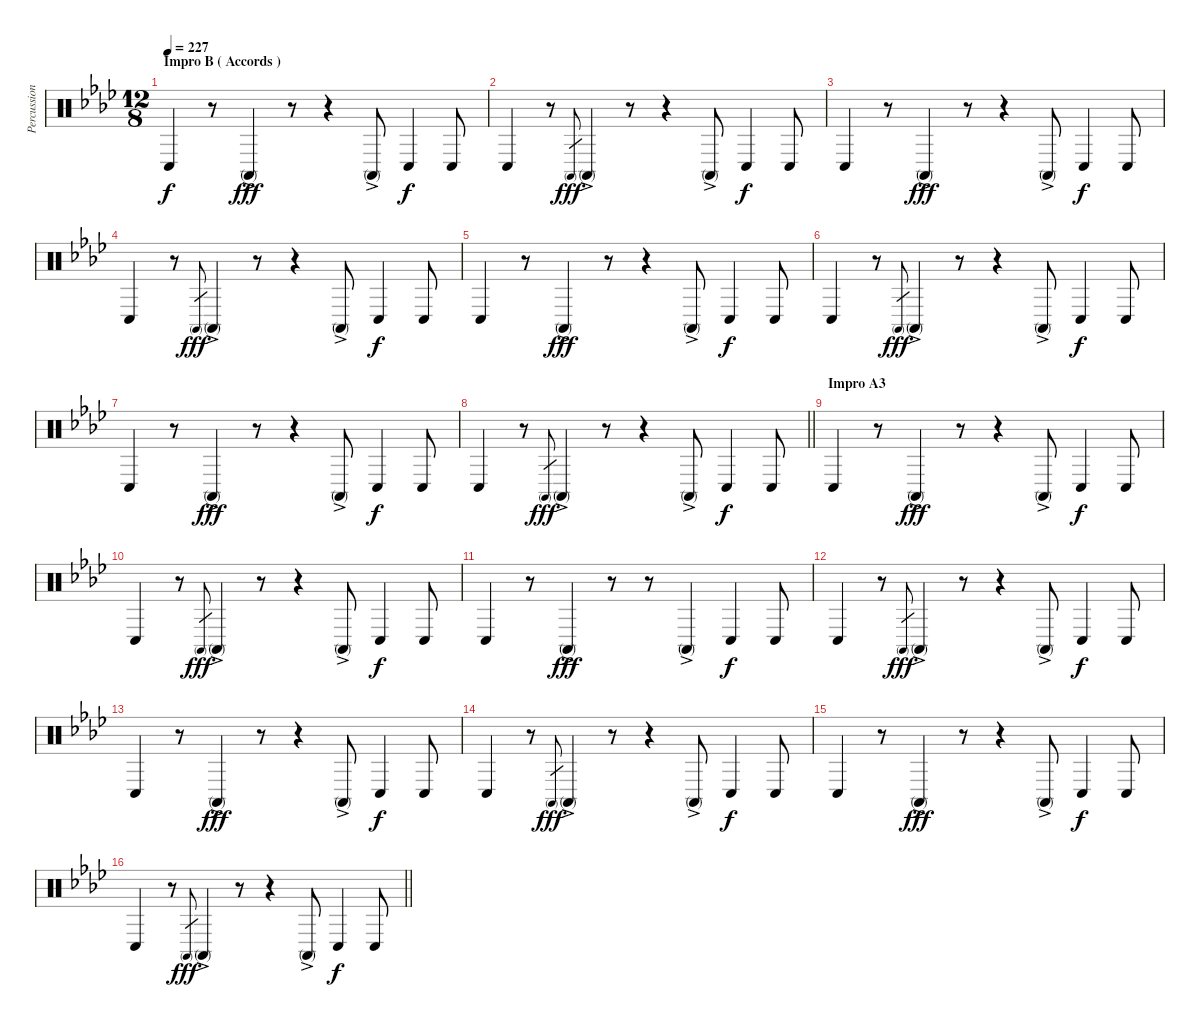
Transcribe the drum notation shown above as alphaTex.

\track ("Percussions" "Percussion") {instrument percussion}
\staff {score}
\articulation defaults
\ts (12 8)
\section ("" "Impro B ( Accords )")
\tempo 227
\clef neutral
\ks fminor "Conga low (hit)".4{dy f volume 13 balance 8}
r.8 "Conga high (mute)"{ac}.4{dy fff} r.8 r.4 "Conga high (mute)"{ac}.8 "Conga low (hit)".4{dy f} "Conga low (hit)".8 |
"Conga low (hit)".4 r.8 "Conga high (mute)".8{gr dy fff} "Conga high (mute)"{ac}.4 r.8 r.4 "Conga high (mute)"{ac}.8 "Conga low (hit)".4{dy f} "Conga low (hit)".8 |
"Conga low (hit)".4 r.8 "Conga high (mute)"{ac}.4{dy fff} r.8 r.4 "Conga high (mute)"{ac}.8 "Conga low (hit)".4{dy f} "Conga low (hit)".8 |
"Conga low (hit)".4 r.8 "Conga high (mute)".8{gr dy fff} "Conga high (mute)"{ac}.4 r.8 r.4 "Conga high (mute)"{ac}.8 "Conga low (hit)".4{dy f} "Conga low (hit)".8 |
"Conga low (hit)".4 r.8 "Conga high (mute)"{ac}.4{dy fff} r.8 r.4 "Conga high (mute)"{ac}.8 "Conga low (hit)".4{dy f} "Conga low (hit)".8 |
"Conga low (hit)".4 r.8 "Conga high (mute)".8{gr dy fff} "Conga high (mute)"{ac}.4 r.8 r.4 "Conga high (mute)"{ac}.8 "Conga low (hit)".4{dy f} "Conga low (hit)".8 |
"Conga low (hit)".4 r.8 "Conga high (mute)"{ac}.4{dy fff} r.8 r.4 "Conga high (mute)"{ac}.8 "Conga low (hit)".4{dy f} "Conga low (hit)".8 |
\barLineRight lightlight "Conga low (hit)".4
r.8 "Conga high (mute)".8{gr dy fff} "Conga high (mute)"{ac}.4 r.8 r.4 "Conga high (mute)"{ac}.8 "Conga low (hit)".4{dy f} "Conga low (hit)".8 |
\section ("" "Impro A3")
"Conga low (hit)".4{volume 12 balance 8} r.8 "Conga high (mute)"{ac}.4{dy fff} r.8 r.4 "Conga high (mute)"{ac}.8 "Conga low (hit)".4{dy f} "Conga low (hit)".8 |
"Conga low (hit)".4 r.8 "Conga high (mute)".8{gr dy fff} "Conga high (mute)"{ac}.4 r.8 r.4 "Conga high (mute)"{ac}.8 "Conga low (hit)".4{dy f} "Conga low (hit)".8 |
"Conga low (hit)".4 r.8 "Conga high (mute)"{ac}.4{dy fff} r.8 r.8 "Conga high (mute)"{ac}.4 "Conga low (hit)".4{dy f} "Conga low (hit)".8 |
"Conga low (hit)".4 r.8 "Conga high (mute)".8{gr dy fff} "Conga high (mute)"{ac}.4 r.8 r.4 "Conga high (mute)"{ac}.8 "Conga low (hit)".4{dy f} "Conga low (hit)".8 |
"Conga low (hit)".4 r.8 "Conga high (mute)"{ac}.4{dy fff} r.8 r.4 "Conga high (mute)"{ac}.8 "Conga low (hit)".4{dy f} "Conga low (hit)".8 |
"Conga low (hit)".4 r.8 "Conga high (mute)".8{gr dy fff} "Conga high (mute)"{ac}.4 r.8 r.4 "Conga high (mute)"{ac}.8 "Conga low (hit)".4{dy f} "Conga low (hit)".8 |
"Conga low (hit)".4 r.8 "Conga high (mute)"{ac}.4{dy fff} r.8 r.4 "Conga high (mute)"{ac}.8 "Conga low (hit)".4{dy f} "Conga low (hit)".8 |
\barLineRight lightlight "Conga low (hit)".4
r.8 "Conga high (mute)".8{gr dy fff} "Conga high (mute)"{ac}.4 r.8 r.4 "Conga high (mute)"{ac}.8 "Conga low (hit)".4{dy f} "Conga low (hit)".8
